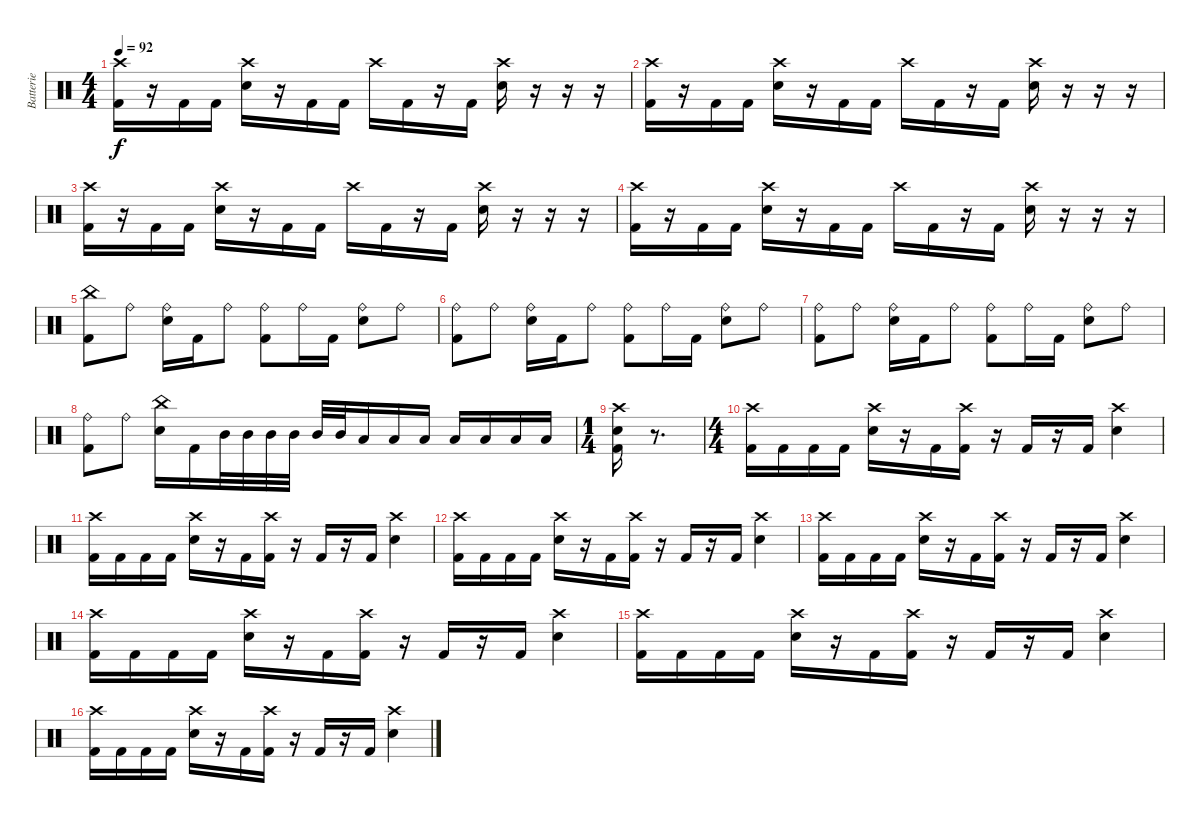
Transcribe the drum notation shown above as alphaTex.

\track ("Batterie" "Batterie") {instrument percussion}
\staff {score}
\articulation defaults
\ts (4 4)
\tempo 92
\clef neutral
\ks c
("Crash high (hit)" "Kick (hit) 2").16{dy f} r.16 "Kick (hit) 2".16 "Kick (hit) 2".16 ("Crash high (hit)" "Electric Snare (hit)").16 r.16 "Kick (hit) 2".16 "Kick (hit) 2".16 "Crash high (hit)".16 "Kick (hit) 2".16 r.16 "Kick (hit) 2".16 ("Crash high (hit)" "Electric Snare (hit)").16 r.16 r.16 r.16 |
("Crash high (hit)" "Kick (hit) 2").16 r.16 "Kick (hit) 2".16 "Kick (hit) 2".16 ("Crash high (hit)" "Electric Snare (hit)").16 r.16 "Kick (hit) 2".16 "Kick (hit) 2".16 "Crash high (hit)".16 "Kick (hit) 2".16 r.16 "Kick (hit) 2".16 ("Crash high (hit)" "Electric Snare (hit)").16 r.16 r.16 r.16 |
("Crash high (hit)" "Kick (hit) 2").16 r.16 "Kick (hit) 2".16 "Kick (hit) 2".16 ("Crash high (hit)" "Electric Snare (hit)").16 r.16 "Kick (hit) 2".16 "Kick (hit) 2".16 "Crash high (hit)".16 "Kick (hit) 2".16 r.16 "Kick (hit) 2".16 ("Crash high (hit)" "Electric Snare (hit)").16 r.16 r.16 r.16 |
("Crash high (hit)" "Kick (hit) 2").16 r.16 "Kick (hit) 2".16 "Kick (hit) 2".16 ("Crash high (hit)" "Electric Snare (hit)").16 r.16 "Kick (hit) 2".16 "Kick (hit) 2".16 "Crash high (hit)".16 "Kick (hit) 2".16 r.16 "Kick (hit) 2".16 ("Crash high (hit)" "Electric Snare (hit)").16 r.16 r.16 r.16 |
\section ("" "")
("China (hit)" "Kick (hit) 2").8 "Ride (bell)".8 ("Ride (bell)" "Electric Snare (hit)").16 "Kick (hit) 2".16 "Ride (bell)".8 ("Ride (bell)" "Kick (hit) 2").8 "Ride (bell)".16 "Kick (hit) 2".16 ("Ride (bell)" "Electric Snare (hit)").8 "Ride (bell)".8 |
("Ride (bell)" "Kick (hit) 2").8 "Ride (bell)".8 ("Ride (bell)" "Electric Snare (hit)").16 "Kick (hit) 2".16 "Ride (bell)".8 ("Ride (bell)" "Kick (hit) 2").8 "Ride (bell)".16 "Kick (hit) 2".16 ("Ride (bell)" "Electric Snare (hit)").8 "Ride (bell)".8 |
("Ride (bell)" "Kick (hit) 2").8 "Ride (bell)".8 ("Ride (bell)" "Electric Snare (hit)").16 "Kick (hit) 2".16 "Ride (bell)".8 ("Ride (bell)" "Kick (hit) 2").8 "Ride (bell)".16 "Kick (hit) 2".16 ("Ride (bell)" "Electric Snare (hit)").8 "Ride (bell)".8 |
("Ride (bell)" "Kick (hit) 2").8 "Ride (bell)".8 ("China (hit)" "Electric Snare (hit)").16 "Kick (hit) 2".16 "Mid Tom (hit)".32 "Mid Tom (hit)".32 "Mid Tom (hit)".32 "Mid Tom (hit)".32 "Mid Tom (hit)".32 "Mid Tom (hit)".32 "Low Tom (hit)".16 "Low Tom (hit)".16 "Low Tom (hit)".16 "Low Tom (hit)".16 "Low Tom (hit)".16 "Low Tom (hit)".16 "Low Tom (hit)".16 |
\ts (1 4)
("Crash high (hit)" "Electric Snare (hit)" "Kick (hit) 2").16 r.8{d} |
\ts (4 4)
\section ("" "")
("Crash high (hit)" "Kick (hit) 2").16 "Kick (hit) 2".16 "Kick (hit) 2".16 "Kick (hit) 2".16 ("Crash high (hit)" "Electric Snare (hit)").16 r.16 "Kick (hit) 2".16 ("Crash high (hit)" "Kick (hit) 2").16 r.16 "Kick (hit) 2".16 r.16 "Kick (hit) 2".16 ("Crash high (hit)" "Electric Snare (hit)").4 |
("Crash high (hit)" "Kick (hit) 2").16 "Kick (hit) 2".16 "Kick (hit) 2".16 "Kick (hit) 2".16 ("Crash high (hit)" "Electric Snare (hit)").16 r.16 "Kick (hit) 2".16 ("Crash high (hit)" "Kick (hit) 2").16 r.16 "Kick (hit) 2".16 r.16 "Kick (hit) 2".16 ("Crash high (hit)" "Electric Snare (hit)").4 |
("Crash high (hit)" "Kick (hit) 2").16 "Kick (hit) 2".16 "Kick (hit) 2".16 "Kick (hit) 2".16 ("Crash high (hit)" "Electric Snare (hit)").16 r.16 "Kick (hit) 2".16 ("Crash high (hit)" "Kick (hit) 2").16 r.16 "Kick (hit) 2".16 r.16 "Kick (hit) 2".16 ("Crash high (hit)" "Electric Snare (hit)").4 |
("Crash high (hit)" "Kick (hit) 2").16 "Kick (hit) 2".16 "Kick (hit) 2".16 "Kick (hit) 2".16 ("Crash high (hit)" "Electric Snare (hit)").16 r.16 "Kick (hit) 2".16 ("Crash high (hit)" "Kick (hit) 2").16 r.16 "Kick (hit) 2".16 r.16 "Kick (hit) 2".16 ("Crash high (hit)" "Electric Snare (hit)").4 |
("Crash high (hit)" "Kick (hit) 2").16 "Kick (hit) 2".16 "Kick (hit) 2".16 "Kick (hit) 2".16 ("Crash high (hit)" "Electric Snare (hit)").16 r.16 "Kick (hit) 2".16 ("Crash high (hit)" "Kick (hit) 2").16 r.16 "Kick (hit) 2".16 r.16 "Kick (hit) 2".16 ("Crash high (hit)" "Electric Snare (hit)").4 |
("Crash high (hit)" "Kick (hit) 2").16 "Kick (hit) 2".16 "Kick (hit) 2".16 "Kick (hit) 2".16 ("Crash high (hit)" "Electric Snare (hit)").16 r.16 "Kick (hit) 2".16 ("Crash high (hit)" "Kick (hit) 2").16 r.16 "Kick (hit) 2".16 r.16 "Kick (hit) 2".16 ("Crash high (hit)" "Electric Snare (hit)").4 |
("Crash high (hit)" "Kick (hit) 2").16 "Kick (hit) 2".16 "Kick (hit) 2".16 "Kick (hit) 2".16 ("Crash high (hit)" "Electric Snare (hit)").16 r.16 "Kick (hit) 2".16 ("Crash high (hit)" "Kick (hit) 2").16 r.16 "Kick (hit) 2".16 r.16 "Kick (hit) 2".16 ("Crash high (hit)" "Electric Snare (hit)").4
